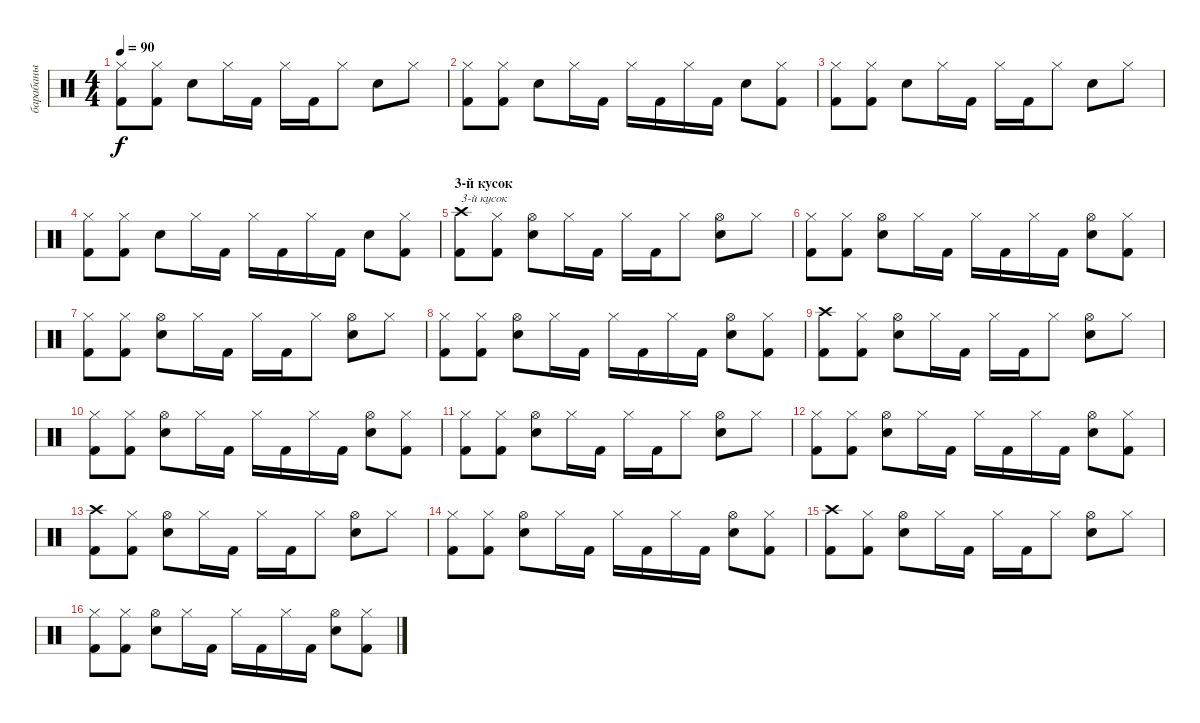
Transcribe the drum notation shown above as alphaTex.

\track ("барабаны" "барабаны") {instrument percussion}
\staff {score}
\articulation defaults
\ts (4 4)
\tempo 90
\clef neutral
\ks c
("Hi-Hat (closed)" "Kick (hit) 2").8{dy f} ("Hi-Hat (closed)" "Kick (hit) 2").8 "Electric Snare (hit)".8 "Hi-Hat (closed)".16 "Kick (hit) 2".16 "Hi-Hat (closed)".16 "Kick (hit) 2".16 "Hi-Hat (closed)".8 "Electric Snare (hit)".8 "Hi-Hat (closed)".8 |
("Hi-Hat (closed)" "Kick (hit) 2").8 ("Hi-Hat (closed)" "Kick (hit) 2").8 "Electric Snare (hit)".8 "Hi-Hat (closed)".16 "Kick (hit) 2".16 "Hi-Hat (closed)".16 "Kick (hit) 2".16 "Hi-Hat (closed)".16 "Kick (hit) 2".16 "Electric Snare (hit)".8 ("Hi-Hat (closed)" "Kick (hit) 2").8 |
("Hi-Hat (closed)" "Kick (hit) 2").8 ("Hi-Hat (closed)" "Kick (hit) 2").8 "Electric Snare (hit)".8 "Hi-Hat (closed)".16 "Kick (hit) 2".16 "Hi-Hat (closed)".16 "Kick (hit) 2".16 "Hi-Hat (closed)".8 "Electric Snare (hit)".8 "Hi-Hat (closed)".8 |
("Hi-Hat (closed)" "Kick (hit) 2").8 ("Hi-Hat (closed)" "Kick (hit) 2").8 "Electric Snare (hit)".8 "Hi-Hat (closed)".16 "Kick (hit) 2".16 "Hi-Hat (closed)".16 "Kick (hit) 2".16 "Hi-Hat (closed)".16 "Kick (hit) 2".16 "Electric Snare (hit)".8 ("Hi-Hat (closed)" "Kick (hit) 2").8 |
\section ("" "3-й кусок")
("Crash high (hit)" "Kick (hit) 2").8{txt "3-й кусок"} ("Hi-Hat (closed)" "Kick (hit) 2").8 ("Hi-Hat (open)" "Electric Snare (hit)").8 "Hi-Hat (closed)".16 "Kick (hit) 2".16 "Hi-Hat (closed)".16 "Kick (hit) 2".16 "Hi-Hat (closed)".8 ("Hi-Hat (open)" "Electric Snare (hit)").8 "Hi-Hat (closed)".8 |
("Hi-Hat (closed)" "Kick (hit) 2").8 ("Hi-Hat (closed)" "Kick (hit) 2").8 ("Hi-Hat (open)" "Electric Snare (hit)").8 "Hi-Hat (closed)".16 "Kick (hit) 2".16 "Hi-Hat (closed)".16 "Kick (hit) 2".16 "Hi-Hat (closed)".16 "Kick (hit) 2".16 ("Hi-Hat (open)" "Electric Snare (hit)").8 ("Hi-Hat (closed)" "Kick (hit) 2").8 |
("Hi-Hat (closed)" "Kick (hit) 2").8 ("Hi-Hat (closed)" "Kick (hit) 2").8 ("Hi-Hat (open)" "Electric Snare (hit)").8 "Hi-Hat (closed)".16 "Kick (hit) 2".16 "Hi-Hat (closed)".16 "Kick (hit) 2".16 "Hi-Hat (closed)".8 ("Hi-Hat (open)" "Electric Snare (hit)").8 "Hi-Hat (closed)".8 |
("Hi-Hat (closed)" "Kick (hit) 2").8 ("Hi-Hat (closed)" "Kick (hit) 2").8 ("Hi-Hat (open)" "Electric Snare (hit)").8 "Hi-Hat (closed)".16 "Kick (hit) 2".16 "Hi-Hat (closed)".16 "Kick (hit) 2".16 "Hi-Hat (closed)".16 "Kick (hit) 2".16 ("Hi-Hat (open)" "Electric Snare (hit)").8 ("Hi-Hat (closed)" "Kick (hit) 2").8 |
("Crash high (hit)" "Kick (hit) 2").8 ("Hi-Hat (closed)" "Kick (hit) 2").8 ("Hi-Hat (open)" "Electric Snare (hit)").8 "Hi-Hat (closed)".16 "Kick (hit) 2".16 "Hi-Hat (closed)".16 "Kick (hit) 2".16 "Hi-Hat (closed)".8 ("Hi-Hat (open)" "Electric Snare (hit)").8 "Hi-Hat (closed)".8 |
("Hi-Hat (closed)" "Kick (hit) 2").8 ("Hi-Hat (closed)" "Kick (hit) 2").8 ("Hi-Hat (open)" "Electric Snare (hit)").8 "Hi-Hat (closed)".16 "Kick (hit) 2".16 "Hi-Hat (closed)".16 "Kick (hit) 2".16 "Hi-Hat (closed)".16 "Kick (hit) 2".16 ("Hi-Hat (open)" "Electric Snare (hit)").8 ("Hi-Hat (closed)" "Kick (hit) 2").8 |
("Hi-Hat (closed)" "Kick (hit) 2").8 ("Hi-Hat (closed)" "Kick (hit) 2").8 ("Hi-Hat (open)" "Electric Snare (hit)").8 "Hi-Hat (closed)".16 "Kick (hit) 2".16 "Hi-Hat (closed)".16 "Kick (hit) 2".16 "Hi-Hat (closed)".8 ("Hi-Hat (open)" "Electric Snare (hit)").8 "Hi-Hat (closed)".8 |
("Hi-Hat (closed)" "Kick (hit) 2").8 ("Hi-Hat (closed)" "Kick (hit) 2").8 ("Hi-Hat (open)" "Electric Snare (hit)").8 "Hi-Hat (closed)".16 "Kick (hit) 2".16 "Hi-Hat (closed)".16 "Kick (hit) 2".16 "Hi-Hat (closed)".16 "Kick (hit) 2".16 ("Hi-Hat (open)" "Electric Snare (hit)").8 ("Hi-Hat (closed)" "Kick (hit) 2").8 |
("Crash high (hit)" "Kick (hit) 2").8 ("Hi-Hat (closed)" "Kick (hit) 2").8 ("Hi-Hat (open)" "Electric Snare (hit)").8 "Hi-Hat (closed)".16 "Kick (hit) 2".16 "Hi-Hat (closed)".16 "Kick (hit) 2".16 "Hi-Hat (closed)".8 ("Hi-Hat (open)" "Electric Snare (hit)").8 "Hi-Hat (closed)".8 |
("Hi-Hat (closed)" "Kick (hit) 2").8 ("Hi-Hat (closed)" "Kick (hit) 2").8 ("Hi-Hat (open)" "Electric Snare (hit)").8 "Hi-Hat (closed)".16 "Kick (hit) 2".16 "Hi-Hat (closed)".16 "Kick (hit) 2".16 "Hi-Hat (closed)".16 "Kick (hit) 2".16 ("Hi-Hat (open)" "Electric Snare (hit)").8 ("Hi-Hat (closed)" "Kick (hit) 2").8 |
("Crash high (hit)" "Kick (hit) 2").8 ("Hi-Hat (closed)" "Kick (hit) 2").8 ("Hi-Hat (open)" "Electric Snare (hit)").8 "Hi-Hat (closed)".16 "Kick (hit) 2".16 "Hi-Hat (closed)".16 "Kick (hit) 2".16 "Hi-Hat (closed)".8 ("Hi-Hat (open)" "Electric Snare (hit)").8 "Hi-Hat (closed)".8 |
("Hi-Hat (closed)" "Kick (hit) 2").8 ("Hi-Hat (closed)" "Kick (hit) 2").8 ("Hi-Hat (open)" "Electric Snare (hit)").8 "Hi-Hat (closed)".16 "Kick (hit) 2".16 "Hi-Hat (closed)".16 "Kick (hit) 2".16 "Hi-Hat (closed)".16 "Kick (hit) 2".16 ("Hi-Hat (open)" "Electric Snare (hit)").8 ("Hi-Hat (closed)" "Kick (hit) 2").8
